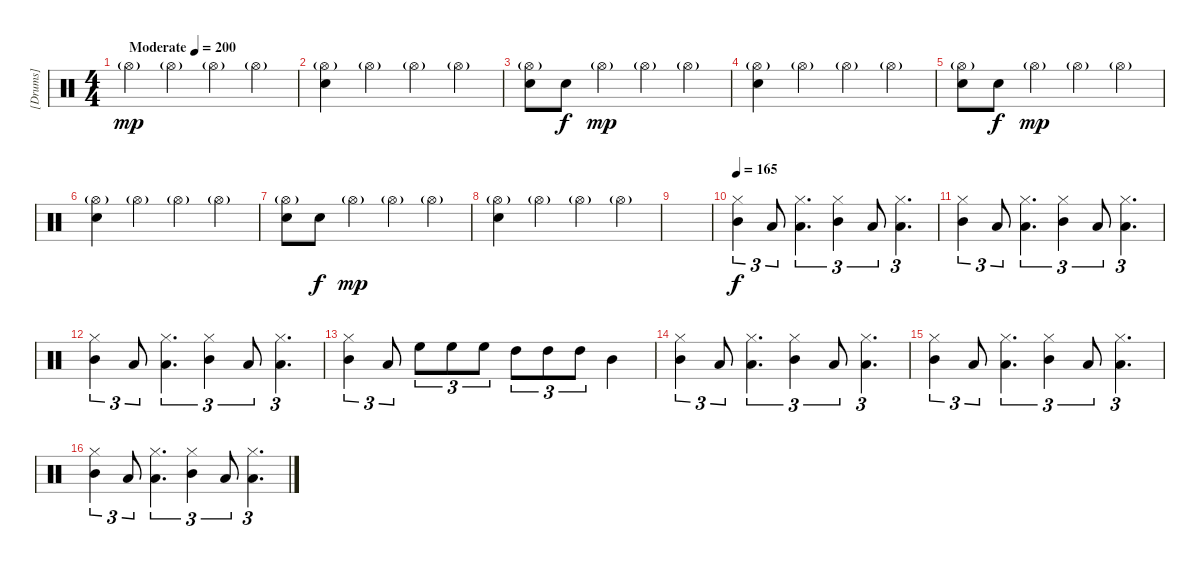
\track ("[Drums]" "[Drums]") {instrument percussion}
\staff {score}
\articulation defaults
\ts (4 4)
\tempo (200 "Moderate")
\clef neutral
\ks c "Hi-Hat (open)"{g}.4{dy mp} "Hi-Hat (open)"{g}.4 "Hi-Hat (open)"{g}.4 "Hi-Hat (open)"{g}.4
|
("Hi-Hat (open)"{g} "Electric Snare (hit)").4 "Hi-Hat (open)"{g}.4 "Hi-Hat (open)"{g}.4 "Hi-Hat (open)"{g}.4 |
("Hi-Hat (open)"{g} "Electric Snare (hit)").8 "Electric Snare (hit)".8{dy f} "Hi-Hat (open)"{g}.4{dy mp} "Hi-Hat (open)"{g}.4 "Hi-Hat (open)"{g}.4 |
("Hi-Hat (open)"{g} "Electric Snare (hit)").4 "Hi-Hat (open)"{g}.4 "Hi-Hat (open)"{g}.4 "Hi-Hat (open)"{g}.4 |
("Hi-Hat (open)"{g} "Electric Snare (hit)").8 "Electric Snare (hit)".8{dy f} "Hi-Hat (open)"{g}.4{dy mp} "Hi-Hat (open)"{g}.4 "Hi-Hat (open)"{g}.4 |
("Hi-Hat (open)"{g} "Electric Snare (hit)").4 "Hi-Hat (open)"{g}.4 "Hi-Hat (open)"{g}.4 "Hi-Hat (open)"{g}.4 |
("Hi-Hat (open)"{g} "Electric Snare (hit)").8 "Electric Snare (hit)".8{dy f} "Hi-Hat (open)"{g}.4{dy mp} "Hi-Hat (open)"{g}.4 "Hi-Hat (open)"{g}.4 |
("Hi-Hat (open)"{g} "Electric Snare (hit)").4 "Hi-Hat (open)"{g}.4 "Hi-Hat (open)"{g}.4 "Hi-Hat (open)"{g}.4 |
|
\tempo 165
("Hi-Hat (closed)" "Mid Tom (hit)").4{tu (3 2) dy f} "Low Tom (hit)".8{tu (3 2)} ("Hi-Hat (closed)" "Low Tom (hit)").4{d tu (3 2)} ("Hi-Hat (closed)" "Mid Tom (hit)").4{tu (3 2)} "Low Tom (hit)".8{tu (3 2)} ("Hi-Hat (closed)" "Low Tom (hit)").4{d tu (3 2)} |
("Hi-Hat (closed)" "Mid Tom (hit)").4{tu (3 2)} "Low Tom (hit)".8{tu (3 2)} ("Hi-Hat (closed)" "Low Tom (hit)").4{d tu (3 2)} ("Hi-Hat (closed)" "Mid Tom (hit)").4{tu (3 2)} "Low Tom (hit)".8{tu (3 2)} ("Hi-Hat (closed)" "Low Tom (hit)").4{d tu (3 2)} |
("Hi-Hat (closed)" "Mid Tom (hit)").4{tu (3 2)} "Low Tom (hit)".8{tu (3 2)} ("Hi-Hat (closed)" "Low Tom (hit)").4{d tu (3 2)} ("Hi-Hat (closed)" "Mid Tom (hit)").4{tu (3 2)} "Low Tom (hit)".8{tu (3 2)} ("Hi-Hat (closed)" "Low Tom (hit)").4{d tu (3 2)} |
("Hi-Hat (closed)" "Mid Tom (hit)").4{tu (3 2)} "Low Tom (hit)".8{tu (3 2)} "High Floor Tom (hit)".8{tu (3 2)} "High Floor Tom (hit)".8{tu (3 2)} "High Floor Tom (hit)".8{tu (3 2)} "High Tom (hit)".8{tu (3 2)} "High Tom (hit)".8{tu (3 2)} "High Tom (hit)".8{tu (3 2)} "Mid Tom (hit)".4 |
("Hi-Hat (closed)" "Mid Tom (hit)").4{tu (3 2)} "Low Tom (hit)".8{tu (3 2)} ("Hi-Hat (closed)" "Low Tom (hit)").4{d tu (3 2)} ("Hi-Hat (closed)" "Mid Tom (hit)").4{tu (3 2)} "Low Tom (hit)".8{tu (3 2)} ("Hi-Hat (closed)" "Low Tom (hit)").4{d tu (3 2)} |
("Hi-Hat (closed)" "Mid Tom (hit)").4{tu (3 2)} "Low Tom (hit)".8{tu (3 2)} ("Hi-Hat (closed)" "Low Tom (hit)").4{d tu (3 2)} ("Hi-Hat (closed)" "Mid Tom (hit)").4{tu (3 2)} "Low Tom (hit)".8{tu (3 2)} ("Hi-Hat (closed)" "Low Tom (hit)").4{d tu (3 2)} |
("Hi-Hat (closed)" "Mid Tom (hit)").4{tu (3 2)} "Low Tom (hit)".8{tu (3 2)} ("Hi-Hat (closed)" "Low Tom (hit)").4{d tu (3 2)} ("Hi-Hat (closed)" "Mid Tom (hit)").4{tu (3 2)} "Low Tom (hit)".8{tu (3 2)} ("Hi-Hat (closed)" "Low Tom (hit)").4{d tu (3 2)}
